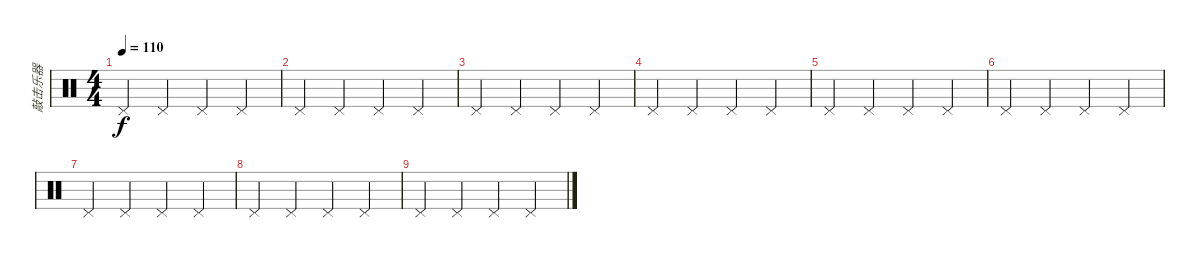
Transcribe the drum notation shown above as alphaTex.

\track ("敲击乐器" "敲击乐器") {instrument percussion}
\staff {score}
\articulation defaults
\ts (4 4)
\tempo 110
\clef neutral
\ks c "Pedal Hi-Hat (hit)".4{dy f} "Pedal Hi-Hat (hit)".4 "Pedal Hi-Hat (hit)".4 "Pedal Hi-Hat (hit)".4
|
"Pedal Hi-Hat (hit)".4 "Pedal Hi-Hat (hit)".4 "Pedal Hi-Hat (hit)".4 "Pedal Hi-Hat (hit)".4 |
"Pedal Hi-Hat (hit)".4 "Pedal Hi-Hat (hit)".4 "Pedal Hi-Hat (hit)".4 "Pedal Hi-Hat (hit)".4 |
"Pedal Hi-Hat (hit)".4 "Pedal Hi-Hat (hit)".4 "Pedal Hi-Hat (hit)".4 "Pedal Hi-Hat (hit)".4 |
"Pedal Hi-Hat (hit)".4 "Pedal Hi-Hat (hit)".4 "Pedal Hi-Hat (hit)".4 "Pedal Hi-Hat (hit)".4 |
"Pedal Hi-Hat (hit)".4 "Pedal Hi-Hat (hit)".4 "Pedal Hi-Hat (hit)".4 "Pedal Hi-Hat (hit)".4 |
"Pedal Hi-Hat (hit)".4 "Pedal Hi-Hat (hit)".4 "Pedal Hi-Hat (hit)".4 "Pedal Hi-Hat (hit)".4 |
"Pedal Hi-Hat (hit)".4 "Pedal Hi-Hat (hit)".4 "Pedal Hi-Hat (hit)".4 "Pedal Hi-Hat (hit)".4 |
"Pedal Hi-Hat (hit)".4 "Pedal Hi-Hat (hit)".4 "Pedal Hi-Hat (hit)".4 "Pedal Hi-Hat (hit)".4
